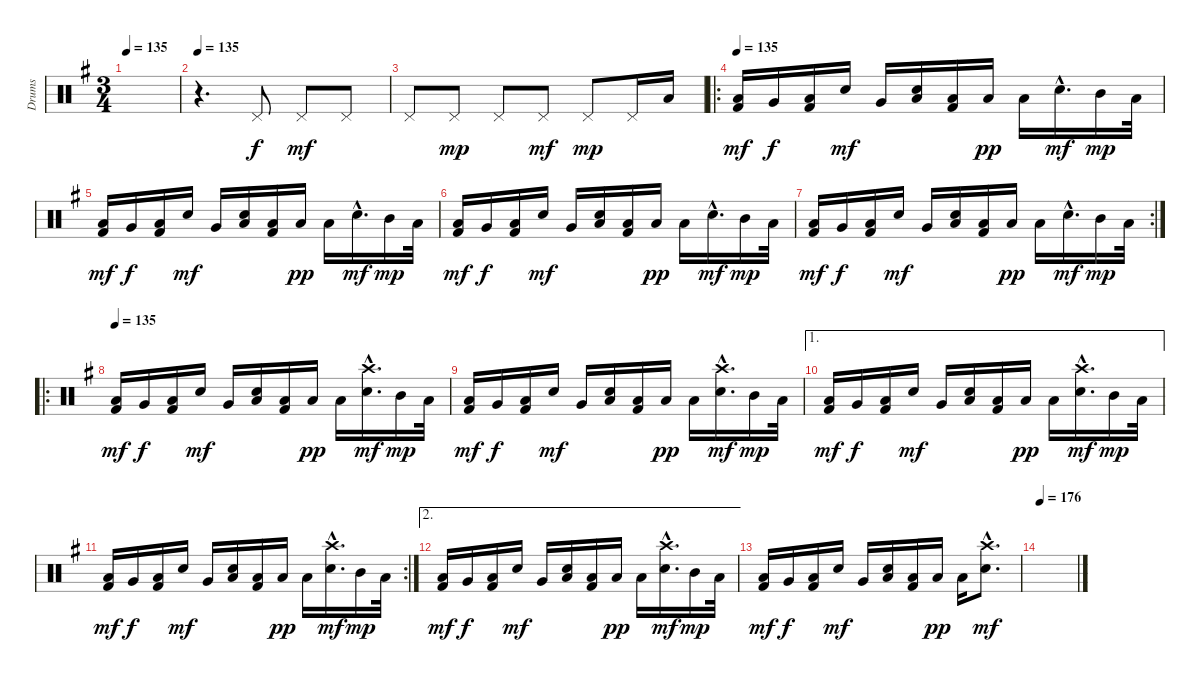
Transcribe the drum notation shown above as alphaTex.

\track ("Drums" "Drums") {instrument percussion}
\staff {score}
\articulation defaults
\ts (3 4)
\tempo 135
\clef neutral
\ks g
|
\tempo 135
r.4{d} "Pedal Hi-Hat (hit)".8 "Pedal Hi-Hat (hit)".8{dy mf} "Pedal Hi-Hat (hit)".8 |
"Pedal Hi-Hat (hit)".8 "Pedal Hi-Hat (hit)".8{dy mp} "Pedal Hi-Hat (hit)".8 "Pedal Hi-Hat (hit)".8{dy mf} "Pedal Hi-Hat (hit)".8{dy mp} "Pedal Hi-Hat (hit)".16 "Low Tom (hit)".16 |
\ro
\tempo 135
("Low Floor Tom (hit)" "Kick (hit) 2").16{dy mf} "Very Low Tom (hit)".16{dy f} ("Low Floor Tom (hit)" "Kick (hit) 2").16 "Electric Snare (hit)".16{dy mf} "Very Low Tom (hit)".16 ("Electric Snare (hit)" "Low Floor Tom (hit)").16 ("Low Floor Tom (hit)" "Kick (hit) 2").16 "Low Floor Tom (hit)".16{dy pp} "Low Floor Tom (hit)".16 "Electric Snare (hit)"{hac}.16{d dy mf} "Mid Tom (hit)".16{dy mp} "Low Tom (hit)".32 |
("Low Floor Tom (hit)" "Kick (hit) 2").16{dy mf} "Very Low Tom (hit)".16{dy f} ("Low Floor Tom (hit)" "Kick (hit) 2").16 "Electric Snare (hit)".16{dy mf} "Very Low Tom (hit)".16 ("Electric Snare (hit)" "Low Floor Tom (hit)").16 ("Low Floor Tom (hit)" "Kick (hit) 2").16 "Low Floor Tom (hit)".16{dy pp} "Low Floor Tom (hit)".16 "Electric Snare (hit)"{hac}.16{d dy mf} "Mid Tom (hit)".16{dy mp} "Low Tom (hit)".32 |
("Low Floor Tom (hit)" "Kick (hit) 2").16{dy mf} "Very Low Tom (hit)".16{dy f} ("Low Floor Tom (hit)" "Kick (hit) 2").16 "Electric Snare (hit)".16{dy mf} "Very Low Tom (hit)".16 ("Electric Snare (hit)" "Low Floor Tom (hit)").16 ("Low Floor Tom (hit)" "Kick (hit) 2").16 "Low Floor Tom (hit)".16{dy pp} "Low Floor Tom (hit)".16 "Electric Snare (hit)"{hac}.16{d dy mf} "Mid Tom (hit)".16{dy mp} "Low Tom (hit)".32 |
\rc 2
("Low Floor Tom (hit)" "Kick (hit) 2").16{dy mf} "Very Low Tom (hit)".16{dy f} ("Low Floor Tom (hit)" "Kick (hit) 2").16 "Electric Snare (hit)".16{dy mf} "Very Low Tom (hit)".16 ("Electric Snare (hit)" "Low Floor Tom (hit)").16 ("Low Floor Tom (hit)" "Kick (hit) 2").16 "Low Floor Tom (hit)".16{dy pp} "Low Floor Tom (hit)".16 "Electric Snare (hit)"{hac}.16{d dy mf} "Mid Tom (hit)".16{dy mp} "Low Tom (hit)".32 |
\ro
\tempo 135
("Low Floor Tom (hit)" "Kick (hit) 2").16{dy mf} "Very Low Tom (hit)".16{dy f} ("Low Floor Tom (hit)" "Kick (hit) 2").16 "Electric Snare (hit)".16{dy mf} "Very Low Tom (hit)".16 ("Electric Snare (hit)" "Low Floor Tom (hit)").16 ("Low Floor Tom (hit)" "Kick (hit) 2").16 "Low Floor Tom (hit)".16{dy pp} "Low Floor Tom (hit)".16 ("Crash high (hit)"{hac} "Electric Snare (hit)"{hac}).16{d dy mf} "Mid Tom (hit)".16{dy mp} "Low Tom (hit)".32 |
("Low Floor Tom (hit)" "Kick (hit) 2").16{dy mf} "Very Low Tom (hit)".16{dy f} ("Low Floor Tom (hit)" "Kick (hit) 2").16 "Electric Snare (hit)".16{dy mf} "Very Low Tom (hit)".16 ("Electric Snare (hit)" "Low Floor Tom (hit)").16 ("Low Floor Tom (hit)" "Kick (hit) 2").16 "Low Floor Tom (hit)".16{dy pp} "Low Floor Tom (hit)".16 ("Crash high (hit)"{hac} "Electric Snare (hit)"{hac}).16{d dy mf} "Mid Tom (hit)".16{dy mp} "Low Tom (hit)".32 |
\ae 1
("Low Floor Tom (hit)" "Kick (hit) 2").16{dy mf} "Very Low Tom (hit)".16{dy f} ("Low Floor Tom (hit)" "Kick (hit) 2").16 "Electric Snare (hit)".16{dy mf} "Very Low Tom (hit)".16 ("Electric Snare (hit)" "Low Floor Tom (hit)").16 ("Low Floor Tom (hit)" "Kick (hit) 2").16 "Low Floor Tom (hit)".16{dy pp} "Low Floor Tom (hit)".16 ("Crash high (hit)"{hac} "Electric Snare (hit)"{hac}).16{d dy mf} "Mid Tom (hit)".16{dy mp} "Low Tom (hit)".32 |
\rc 2
("Low Floor Tom (hit)" "Kick (hit) 2").16{dy mf} "Very Low Tom (hit)".16{dy f} ("Low Floor Tom (hit)" "Kick (hit) 2").16 "Electric Snare (hit)".16{dy mf} "Very Low Tom (hit)".16 ("Electric Snare (hit)" "Low Floor Tom (hit)").16 ("Low Floor Tom (hit)" "Kick (hit) 2").16 "Low Floor Tom (hit)".16{dy pp} "Low Floor Tom (hit)".16 ("Crash high (hit)"{hac} "Electric Snare (hit)"{hac}).16{d dy mf} "Mid Tom (hit)".16{dy mp} "Low Tom (hit)".32 |
\ae 2
("Low Floor Tom (hit)" "Kick (hit) 2").16{dy mf} "Very Low Tom (hit)".16{dy f} ("Low Floor Tom (hit)" "Kick (hit) 2").16 "Electric Snare (hit)".16{dy mf} "Very Low Tom (hit)".16 ("Electric Snare (hit)" "Low Floor Tom (hit)").16 ("Low Floor Tom (hit)" "Kick (hit) 2").16 "Low Floor Tom (hit)".16{dy pp} "Low Floor Tom (hit)".16 ("Crash high (hit)"{hac} "Electric Snare (hit)"{hac}).16{d dy mf} "Mid Tom (hit)".16{dy mp} "Low Tom (hit)".32 |
("Low Floor Tom (hit)" "Kick (hit) 2").16{dy mf} "Very Low Tom (hit)".16{dy f} ("Low Floor Tom (hit)" "Kick (hit) 2").16 "Electric Snare (hit)".16{dy mf} "Very Low Tom (hit)".16 ("Electric Snare (hit)" "Low Floor Tom (hit)").16 ("Low Floor Tom (hit)" "Kick (hit) 2").16 "Low Floor Tom (hit)".16{dy pp} "Low Floor Tom (hit)".16 ("Crash high (hit)"{hac} "Electric Snare (hit)"{hac}).8{d dy mf} |
\tempo 176
